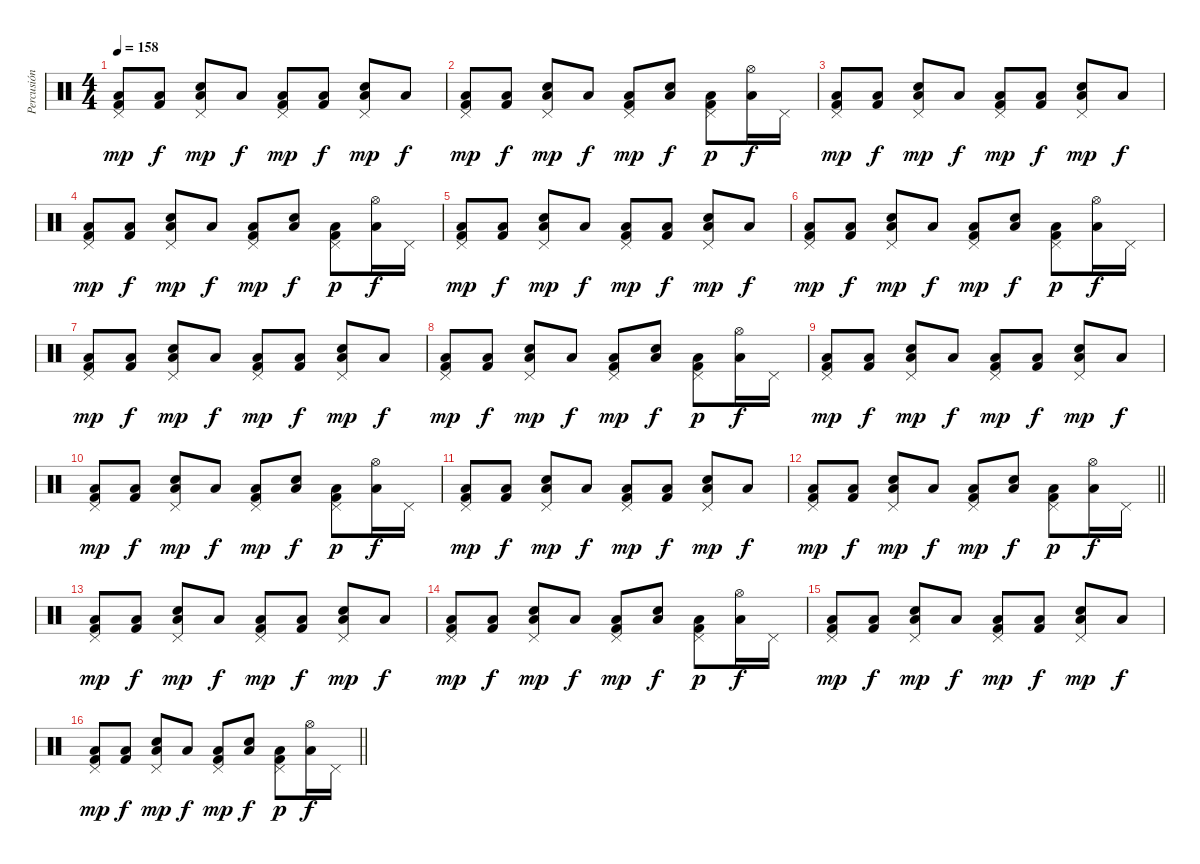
\track ("Percusión" "Percusión") {instrument percussion}
\staff {score}
\articulation defaults
\ts (4 4)
\tempo 158
\clef neutral
\ks c
("Pedal Hi-Hat (hit)" "Low Floor Tom (hit)" "Kick (hit) 2").8{dy mp} ("Low Floor Tom (hit)" "Kick (hit) 2").8{dy f} ("Pedal Hi-Hat (hit)" "Low Floor Tom (hit)" "Electric Snare (hit)").8{dy mp} "Low Floor Tom (hit)".8{dy f} ("Pedal Hi-Hat (hit)" "Low Floor Tom (hit)" "Kick (hit) 2").8{dy mp} ("Low Floor Tom (hit)" "Kick (hit) 2").8{dy f} ("Pedal Hi-Hat (hit)" "Low Floor Tom (hit)" "Electric Snare (hit)").8{dy mp} "Low Floor Tom (hit)".8{dy f} |
("Pedal Hi-Hat (hit)" "Low Floor Tom (hit)" "Kick (hit) 2").8{dy mp} ("Low Floor Tom (hit)" "Kick (hit) 2").8{dy f} ("Pedal Hi-Hat (hit)" "Low Floor Tom (hit)" "Electric Snare (hit)").8{dy mp} "Low Floor Tom (hit)".8{dy f} ("Pedal Hi-Hat (hit)" "Low Floor Tom (hit)" "Kick (hit) 2").8{dy mp} ("Low Floor Tom (hit)" "Electric Snare (hit)").8{dy f} ("Pedal Hi-Hat (hit)" "Low Floor Tom (hit)" "Kick (hit) 2").8{dy p} ("Hi-Hat (open)" "Low Floor Tom (hit)").16{dy f} "Pedal Hi-Hat (hit)".16 |
("Pedal Hi-Hat (hit)" "Low Floor Tom (hit)" "Kick (hit) 2").8{dy mp} ("Low Floor Tom (hit)" "Kick (hit) 2").8{dy f} ("Pedal Hi-Hat (hit)" "Low Floor Tom (hit)" "Electric Snare (hit)").8{dy mp} "Low Floor Tom (hit)".8{dy f} ("Pedal Hi-Hat (hit)" "Low Floor Tom (hit)" "Kick (hit) 2").8{dy mp} ("Low Floor Tom (hit)" "Kick (hit) 2").8{dy f} ("Pedal Hi-Hat (hit)" "Low Floor Tom (hit)" "Electric Snare (hit)").8{dy mp} "Low Floor Tom (hit)".8{dy f} |
("Pedal Hi-Hat (hit)" "Low Floor Tom (hit)" "Kick (hit) 2").8{dy mp} ("Low Floor Tom (hit)" "Kick (hit) 2").8{dy f} ("Pedal Hi-Hat (hit)" "Low Floor Tom (hit)" "Electric Snare (hit)").8{dy mp} "Low Floor Tom (hit)".8{dy f} ("Pedal Hi-Hat (hit)" "Low Floor Tom (hit)" "Kick (hit) 2").8{dy mp} ("Low Floor Tom (hit)" "Electric Snare (hit)").8{dy f} ("Pedal Hi-Hat (hit)" "Low Floor Tom (hit)" "Kick (hit) 2").8{dy p} ("Hi-Hat (open)" "Low Floor Tom (hit)").16{dy f} "Pedal Hi-Hat (hit)".16 |
("Pedal Hi-Hat (hit)" "Low Floor Tom (hit)" "Kick (hit) 2").8{dy mp} ("Low Floor Tom (hit)" "Kick (hit) 2").8{dy f} ("Pedal Hi-Hat (hit)" "Low Floor Tom (hit)" "Electric Snare (hit)").8{dy mp} "Low Floor Tom (hit)".8{dy f} ("Pedal Hi-Hat (hit)" "Low Floor Tom (hit)" "Kick (hit) 2").8{dy mp} ("Low Floor Tom (hit)" "Kick (hit) 2").8{dy f} ("Pedal Hi-Hat (hit)" "Low Floor Tom (hit)" "Electric Snare (hit)").8{dy mp} "Low Floor Tom (hit)".8{dy f} |
("Pedal Hi-Hat (hit)" "Low Floor Tom (hit)" "Kick (hit) 2").8{dy mp} ("Low Floor Tom (hit)" "Kick (hit) 2").8{dy f} ("Pedal Hi-Hat (hit)" "Low Floor Tom (hit)" "Electric Snare (hit)").8{dy mp} "Low Floor Tom (hit)".8{dy f} ("Pedal Hi-Hat (hit)" "Low Floor Tom (hit)" "Kick (hit) 2").8{dy mp} ("Low Floor Tom (hit)" "Electric Snare (hit)").8{dy f} ("Pedal Hi-Hat (hit)" "Low Floor Tom (hit)" "Kick (hit) 2").8{dy p} ("Hi-Hat (open)" "Low Floor Tom (hit)").16{dy f} "Pedal Hi-Hat (hit)".16 |
("Pedal Hi-Hat (hit)" "Low Floor Tom (hit)" "Kick (hit) 2").8{dy mp} ("Low Floor Tom (hit)" "Kick (hit) 2").8{dy f} ("Pedal Hi-Hat (hit)" "Low Floor Tom (hit)" "Electric Snare (hit)").8{dy mp} "Low Floor Tom (hit)".8{dy f} ("Pedal Hi-Hat (hit)" "Low Floor Tom (hit)" "Kick (hit) 2").8{dy mp} ("Low Floor Tom (hit)" "Kick (hit) 2").8{dy f} ("Pedal Hi-Hat (hit)" "Low Floor Tom (hit)" "Electric Snare (hit)").8{dy mp} "Low Floor Tom (hit)".8{dy f} |
("Pedal Hi-Hat (hit)" "Low Floor Tom (hit)" "Kick (hit) 2").8{dy mp} ("Low Floor Tom (hit)" "Kick (hit) 2").8{dy f} ("Pedal Hi-Hat (hit)" "Low Floor Tom (hit)" "Electric Snare (hit)").8{dy mp} "Low Floor Tom (hit)".8{dy f} ("Pedal Hi-Hat (hit)" "Low Floor Tom (hit)" "Kick (hit) 2").8{dy mp} ("Low Floor Tom (hit)" "Electric Snare (hit)").8{dy f} ("Pedal Hi-Hat (hit)" "Low Floor Tom (hit)" "Kick (hit) 2").8{dy p} ("Hi-Hat (open)" "Low Floor Tom (hit)").16{dy f} "Pedal Hi-Hat (hit)".16 |
("Pedal Hi-Hat (hit)" "Low Floor Tom (hit)" "Kick (hit) 2").8{dy mp} ("Low Floor Tom (hit)" "Kick (hit) 2").8{dy f} ("Pedal Hi-Hat (hit)" "Low Floor Tom (hit)" "Electric Snare (hit)").8{dy mp} "Low Floor Tom (hit)".8{dy f} ("Pedal Hi-Hat (hit)" "Low Floor Tom (hit)" "Kick (hit) 2").8{dy mp} ("Low Floor Tom (hit)" "Kick (hit) 2").8{dy f} ("Pedal Hi-Hat (hit)" "Low Floor Tom (hit)" "Electric Snare (hit)").8{dy mp} "Low Floor Tom (hit)".8{dy f} |
("Pedal Hi-Hat (hit)" "Low Floor Tom (hit)" "Kick (hit) 2").8{dy mp} ("Low Floor Tom (hit)" "Kick (hit) 2").8{dy f} ("Pedal Hi-Hat (hit)" "Low Floor Tom (hit)" "Electric Snare (hit)").8{dy mp} "Low Floor Tom (hit)".8{dy f} ("Pedal Hi-Hat (hit)" "Low Floor Tom (hit)" "Kick (hit) 2").8{dy mp} ("Low Floor Tom (hit)" "Electric Snare (hit)").8{dy f} ("Pedal Hi-Hat (hit)" "Low Floor Tom (hit)" "Kick (hit) 2").8{dy p} ("Hi-Hat (open)" "Low Floor Tom (hit)").16{dy f} "Pedal Hi-Hat (hit)".16 |
("Pedal Hi-Hat (hit)" "Low Floor Tom (hit)" "Kick (hit) 2").8{dy mp} ("Low Floor Tom (hit)" "Kick (hit) 2").8{dy f} ("Pedal Hi-Hat (hit)" "Low Floor Tom (hit)" "Electric Snare (hit)").8{dy mp} "Low Floor Tom (hit)".8{dy f} ("Pedal Hi-Hat (hit)" "Low Floor Tom (hit)" "Kick (hit) 2").8{dy mp} ("Low Floor Tom (hit)" "Kick (hit) 2").8{dy f} ("Pedal Hi-Hat (hit)" "Low Floor Tom (hit)" "Electric Snare (hit)").8{dy mp} "Low Floor Tom (hit)".8{dy f} |
\barLineRight lightlight
("Pedal Hi-Hat (hit)" "Low Floor Tom (hit)" "Kick (hit) 2").8{dy mp} ("Low Floor Tom (hit)" "Kick (hit) 2").8{dy f} ("Pedal Hi-Hat (hit)" "Low Floor Tom (hit)" "Electric Snare (hit)").8{dy mp} "Low Floor Tom (hit)".8{dy f} ("Pedal Hi-Hat (hit)" "Low Floor Tom (hit)" "Kick (hit) 2").8{dy mp} ("Low Floor Tom (hit)" "Electric Snare (hit)").8{dy f} ("Pedal Hi-Hat (hit)" "Low Floor Tom (hit)" "Kick (hit) 2").8{dy p} ("Hi-Hat (open)" "Low Floor Tom (hit)").16{dy f} "Pedal Hi-Hat (hit)".16 |
("Pedal Hi-Hat (hit)" "Low Floor Tom (hit)" "Kick (hit) 2").8{dy mp} ("Low Floor Tom (hit)" "Kick (hit) 2").8{dy f} ("Pedal Hi-Hat (hit)" "Low Floor Tom (hit)" "Electric Snare (hit)").8{dy mp} "Low Floor Tom (hit)".8{dy f} ("Pedal Hi-Hat (hit)" "Low Floor Tom (hit)" "Kick (hit) 2").8{dy mp} ("Low Floor Tom (hit)" "Kick (hit) 2").8{dy f} ("Pedal Hi-Hat (hit)" "Low Floor Tom (hit)" "Electric Snare (hit)").8{dy mp} "Low Floor Tom (hit)".8{dy f} |
("Pedal Hi-Hat (hit)" "Low Floor Tom (hit)" "Kick (hit) 2").8{dy mp} ("Low Floor Tom (hit)" "Kick (hit) 2").8{dy f} ("Pedal Hi-Hat (hit)" "Low Floor Tom (hit)" "Electric Snare (hit)").8{dy mp} "Low Floor Tom (hit)".8{dy f} ("Pedal Hi-Hat (hit)" "Low Floor Tom (hit)" "Kick (hit) 2").8{dy mp} ("Low Floor Tom (hit)" "Electric Snare (hit)").8{dy f} ("Pedal Hi-Hat (hit)" "Low Floor Tom (hit)" "Kick (hit) 2").8{dy p} ("Hi-Hat (open)" "Low Floor Tom (hit)").16{dy f} "Pedal Hi-Hat (hit)".16 |
("Pedal Hi-Hat (hit)" "Low Floor Tom (hit)" "Kick (hit) 2").8{dy mp} ("Low Floor Tom (hit)" "Kick (hit) 2").8{dy f} ("Pedal Hi-Hat (hit)" "Low Floor Tom (hit)" "Electric Snare (hit)").8{dy mp} "Low Floor Tom (hit)".8{dy f} ("Pedal Hi-Hat (hit)" "Low Floor Tom (hit)" "Kick (hit) 2").8{dy mp} ("Low Floor Tom (hit)" "Kick (hit) 2").8{dy f} ("Pedal Hi-Hat (hit)" "Low Floor Tom (hit)" "Electric Snare (hit)").8{dy mp} "Low Floor Tom (hit)".8{dy f} |
\barLineRight lightlight
("Pedal Hi-Hat (hit)" "Low Floor Tom (hit)" "Kick (hit) 2").8{dy mp} ("Low Floor Tom (hit)" "Kick (hit) 2").8{dy f} ("Pedal Hi-Hat (hit)" "Low Floor Tom (hit)" "Electric Snare (hit)").8{dy mp} "Low Floor Tom (hit)".8{dy f} ("Pedal Hi-Hat (hit)" "Low Floor Tom (hit)" "Kick (hit) 2").8{dy mp} ("Low Floor Tom (hit)" "Electric Snare (hit)").8{dy f} ("Pedal Hi-Hat (hit)" "Low Floor Tom (hit)" "Kick (hit) 2").8{dy p} ("Hi-Hat (open)" "Low Floor Tom (hit)").16{dy f} "Pedal Hi-Hat (hit)".16
